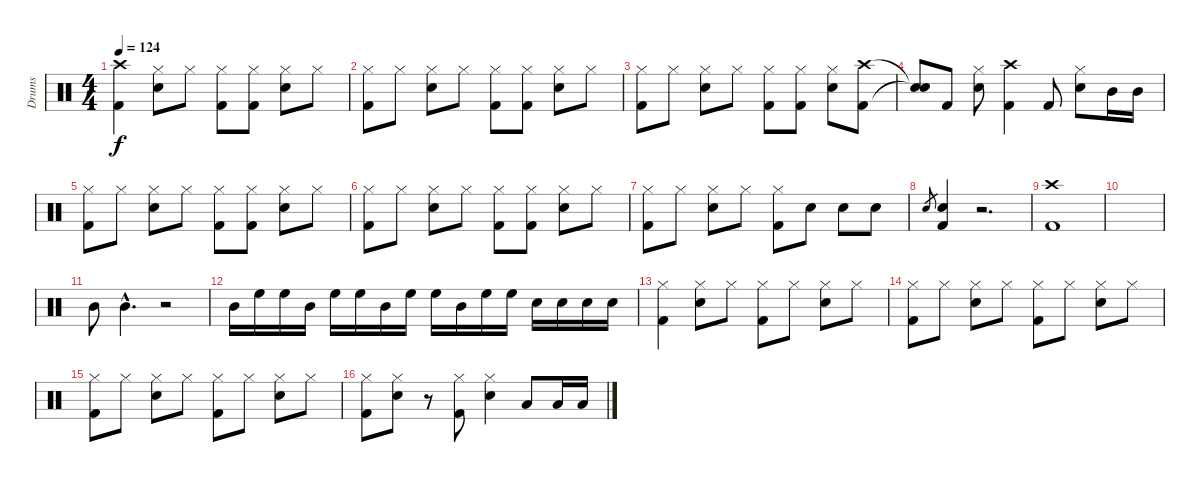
\track ("Drums" "Drums") {instrument percussion}
\staff {score}
\articulation defaults
\ts (4 4)
\tempo 124
\clef neutral
\ks c
("Crash high (hit)" "Kick (hit) 2").4{dy f} ("Hi-Hat (closed)" "Snare (hit) 2").8 "Hi-Hat (closed)".8 ("Hi-Hat (closed)" "Kick (hit) 2").8 ("Hi-Hat (closed)" "Kick (hit) 2").8 ("Hi-Hat (closed)" "Snare (hit) 2").8 "Hi-Hat (closed)".8 |
("Hi-Hat (closed)" "Kick (hit) 2").8 "Hi-Hat (closed)".8 ("Hi-Hat (closed)" "Snare (hit) 2").8 "Hi-Hat (closed)".8 ("Hi-Hat (closed)" "Kick (hit) 2").8 ("Hi-Hat (closed)" "Kick (hit) 2").8 ("Hi-Hat (closed)" "Snare (hit) 2").8 "Hi-Hat (closed)".8 |
("Hi-Hat (closed)" "Kick (hit) 2").8 "Hi-Hat (closed)".8 ("Hi-Hat (closed)" "Snare (hit) 2").8 "Hi-Hat (closed)".8 ("Hi-Hat (closed)" "Kick (hit) 2").8 ("Hi-Hat (closed)" "Kick (hit) 2").8 ("Hi-Hat (closed)" "Snare (hit) 2").8 ("Crash high (hit)" "Kick (hit) 2").8 |
("Snare (hit)"{t} "Snare (hit)"{t}).8 "Kick (hit) 2".8 ("Hi-Hat (closed)" "Snare (hit) 2").8 ("Crash high (hit)" "Kick (hit) 2").4 "Kick (hit) 2".8 ("Hi-Hat (closed)" "Snare (hit) 2").8 "Mid Tom (hit)".16 "Mid Tom (hit)".16 |
("Hi-Hat (closed)" "Kick (hit) 2").8 "Hi-Hat (closed)".8 ("Hi-Hat (closed)" "Snare (hit) 2").8 "Hi-Hat (closed)".8 ("Hi-Hat (closed)" "Kick (hit) 2").8 ("Hi-Hat (closed)" "Kick (hit) 2").8 ("Hi-Hat (closed)" "Snare (hit) 2").8 "Hi-Hat (closed)".8 |
("Hi-Hat (closed)" "Kick (hit) 2").8 "Hi-Hat (closed)".8 ("Hi-Hat (closed)" "Snare (hit) 2").8 "Hi-Hat (closed)".8 ("Hi-Hat (closed)" "Kick (hit) 2").8 ("Hi-Hat (closed)" "Kick (hit) 2").8 ("Hi-Hat (closed)" "Snare (hit) 2").8 "Hi-Hat (closed)".8 |
("Hi-Hat (closed)" "Kick (hit) 2").8 "Hi-Hat (closed)".8 ("Hi-Hat (closed)" "Snare (hit) 2").8 "Hi-Hat (closed)".8 ("Hi-Hat (closed)" "Kick (hit) 2").8 "Snare (hit) 2".8 "Snare (hit) 2".8 "Snare (hit) 2".8 |
"Snare (hit) 2".8{gr} ("Snare (hit) 2" "Kick (hit) 2").4 r.2{d} |
("Crash high (hit)" "Kick (hit) 2").1 |
|
"Mid Tom (hit)".8 "Mid Tom (hit)"{hac}.4{d} r.2 |
"Mid Tom (hit)".16 "High Floor Tom (hit)".16 "High Floor Tom (hit)".16 "Mid Tom (hit)".16 "High Floor Tom (hit)".16 "High Floor Tom (hit)".16 "Mid Tom (hit)".16 "High Floor Tom (hit)".16 "High Floor Tom (hit)".16 "Mid Tom (hit)".16 "High Floor Tom (hit)".16 "High Floor Tom (hit)".16 "Snare (hit) 2".16 "Snare (hit) 2".16 "Snare (hit) 2".16 "Snare (hit) 2".16 |
("Hi-Hat (closed)" "Kick (hit) 2").4 ("Hi-Hat (closed)" "Snare (hit) 2").8 "Hi-Hat (closed)".8 ("Hi-Hat (closed)" "Kick (hit) 2").8 "Hi-Hat (closed)".8 ("Hi-Hat (closed)" "Snare (hit) 2").8 "Hi-Hat (closed)".8 |
("Hi-Hat (closed)" "Kick (hit) 2").8 "Hi-Hat (closed)".8 ("Hi-Hat (closed)" "Snare (hit) 2").8 "Hi-Hat (closed)".8 ("Hi-Hat (closed)" "Kick (hit) 2").8 "Hi-Hat (closed)".8 ("Hi-Hat (closed)" "Snare (hit) 2").8 "Hi-Hat (closed)".8 |
("Hi-Hat (closed)" "Kick (hit) 2").8 "Hi-Hat (closed)".8 ("Hi-Hat (closed)" "Snare (hit) 2").8 "Hi-Hat (closed)".8 ("Hi-Hat (closed)" "Kick (hit) 2").8 "Hi-Hat (closed)".8 ("Hi-Hat (closed)" "Snare (hit) 2").8 "Hi-Hat (closed)".8 |
("Hi-Hat (closed)" "Kick (hit) 2").8 ("Hi-Hat (closed)" "Snare (hit) 2").8 r.8 ("Hi-Hat (closed)" "Kick (hit) 2").8 ("Hi-Hat (closed)" "Snare (hit) 2").4 "Low Tom (hit)".8 "Low Tom (hit)".16 "Low Tom (hit)".16
